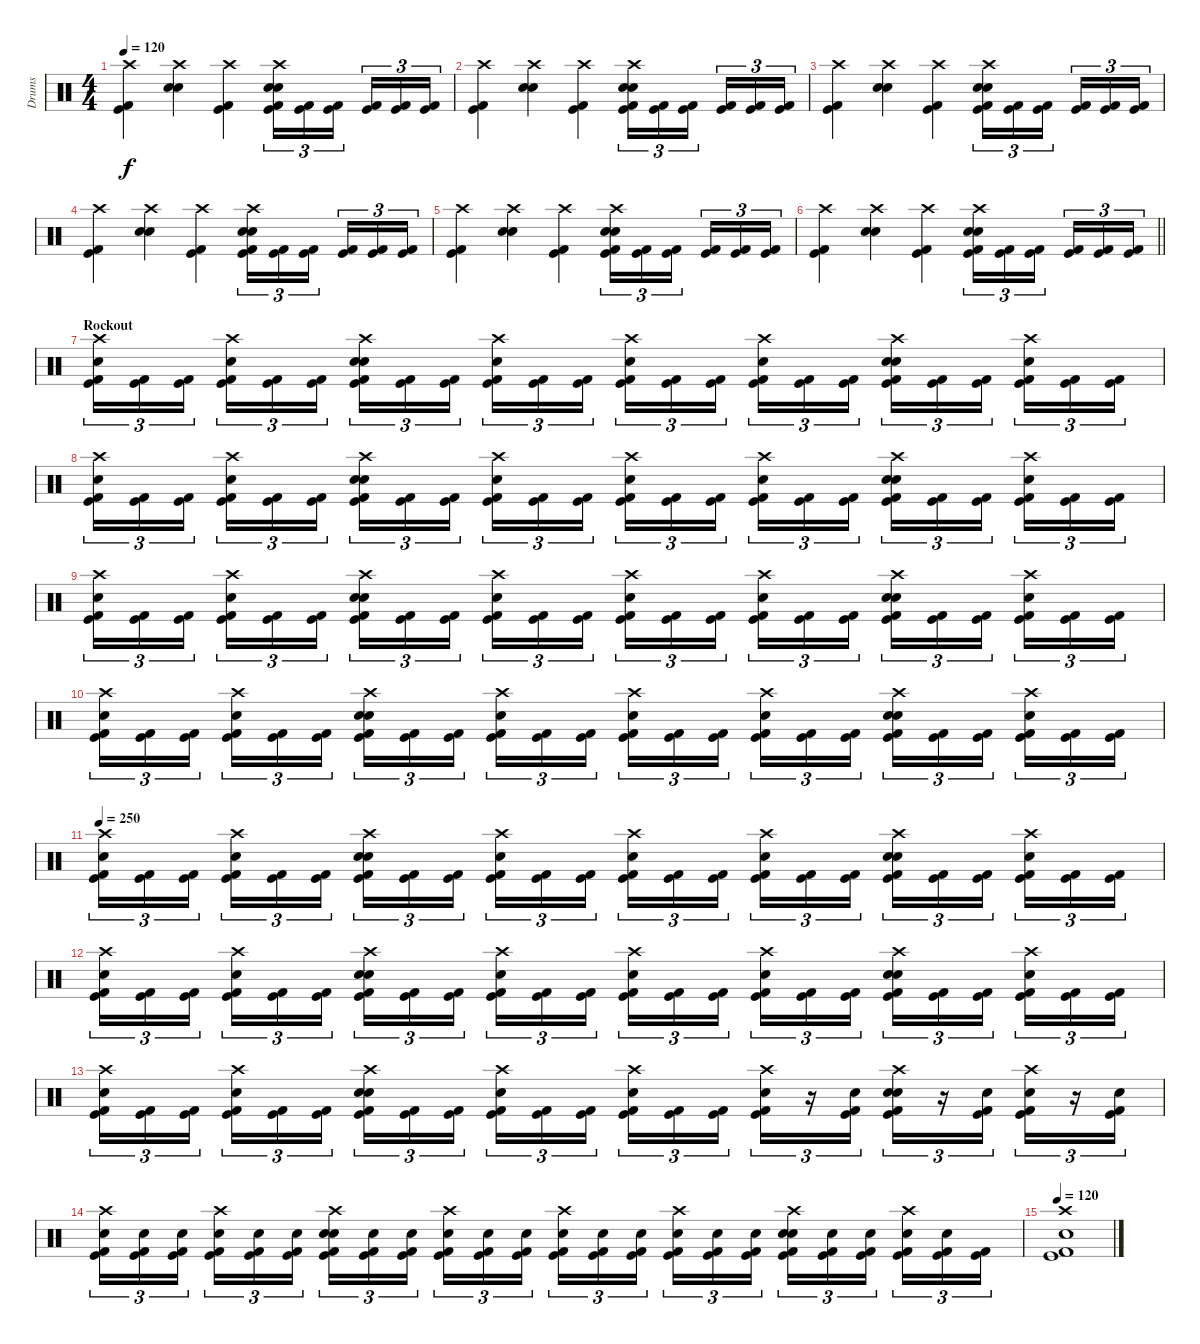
\track ("Drums" "Drums") {instrument percussion}
\staff {score}
\articulation defaults
\ts (4 4)
\tempo 120
\clef neutral
\ks c
("Crash high (hit)" "Kick (hit) 2" "Kick (hit)").4{dy f} ("Crash high (hit)" "Electric Snare (hit)" "Electric Snare (hit)").4 ("Crash high (hit)" "Kick (hit) 2" "Kick (hit)").4 ("Crash high (hit)" "Electric Snare (hit)" "Electric Snare (hit)" "Kick (hit)" "Kick (hit) 2").16{tu (3 2)} ("Kick (hit)" "Kick (hit) 2").16{tu (3 2)} ("Kick (hit)" "Kick (hit) 2").16{tu (3 2) beam splitsecondary} ("Kick (hit)" "Kick (hit) 2").16{tu (3 2)} ("Kick (hit)" "Kick (hit) 2").16{tu (3 2)} ("Kick (hit)" "Kick (hit) 2").16{tu (3 2)} |
("Crash high (hit)" "Kick (hit) 2" "Kick (hit)").4 ("Crash high (hit)" "Electric Snare (hit)" "Electric Snare (hit)").4 ("Crash high (hit)" "Kick (hit) 2" "Kick (hit)").4 ("Crash high (hit)" "Electric Snare (hit)" "Electric Snare (hit)" "Kick (hit)" "Kick (hit) 2").16{tu (3 2)} ("Kick (hit)" "Kick (hit) 2").16{tu (3 2)} ("Kick (hit)" "Kick (hit) 2").16{tu (3 2) beam splitsecondary} ("Kick (hit)" "Kick (hit) 2").16{tu (3 2)} ("Kick (hit)" "Kick (hit) 2").16{tu (3 2)} ("Kick (hit)" "Kick (hit) 2").16{tu (3 2)} |
("Crash high (hit)" "Kick (hit) 2" "Kick (hit)").4 ("Crash high (hit)" "Electric Snare (hit)" "Electric Snare (hit)").4 ("Crash high (hit)" "Kick (hit) 2" "Kick (hit)").4 ("Crash high (hit)" "Electric Snare (hit)" "Electric Snare (hit)" "Kick (hit)" "Kick (hit) 2").16{tu (3 2)} ("Kick (hit)" "Kick (hit) 2").16{tu (3 2)} ("Kick (hit)" "Kick (hit) 2").16{tu (3 2) beam splitsecondary} ("Kick (hit)" "Kick (hit) 2").16{tu (3 2)} ("Kick (hit)" "Kick (hit) 2").16{tu (3 2)} ("Kick (hit)" "Kick (hit) 2").16{tu (3 2)} |
("Crash high (hit)" "Kick (hit) 2" "Kick (hit)").4 ("Crash high (hit)" "Electric Snare (hit)" "Electric Snare (hit)").4 ("Crash high (hit)" "Kick (hit) 2" "Kick (hit)").4 ("Crash high (hit)" "Electric Snare (hit)" "Electric Snare (hit)" "Kick (hit)" "Kick (hit) 2").16{tu (3 2)} ("Kick (hit)" "Kick (hit) 2").16{tu (3 2)} ("Kick (hit)" "Kick (hit) 2").16{tu (3 2) beam splitsecondary} ("Kick (hit)" "Kick (hit) 2").16{tu (3 2)} ("Kick (hit)" "Kick (hit) 2").16{tu (3 2)} ("Kick (hit)" "Kick (hit) 2").16{tu (3 2)} |
("Crash high (hit)" "Kick (hit) 2" "Kick (hit)").4 ("Crash high (hit)" "Electric Snare (hit)" "Electric Snare (hit)").4 ("Crash high (hit)" "Kick (hit) 2" "Kick (hit)").4 ("Crash high (hit)" "Electric Snare (hit)" "Electric Snare (hit)" "Kick (hit)" "Kick (hit) 2").16{tu (3 2)} ("Kick (hit)" "Kick (hit) 2").16{tu (3 2)} ("Kick (hit)" "Kick (hit) 2").16{tu (3 2) beam splitsecondary} ("Kick (hit)" "Kick (hit) 2").16{tu (3 2)} ("Kick (hit)" "Kick (hit) 2").16{tu (3 2)} ("Kick (hit)" "Kick (hit) 2").16{tu (3 2)} |
\barLineRight lightlight
("Crash high (hit)" "Kick (hit) 2" "Kick (hit)").4 ("Crash high (hit)" "Electric Snare (hit)" "Electric Snare (hit)").4 ("Crash high (hit)" "Kick (hit) 2" "Kick (hit)").4 ("Crash high (hit)" "Electric Snare (hit)" "Electric Snare (hit)" "Kick (hit)" "Kick (hit) 2").16{tu (3 2)} ("Kick (hit)" "Kick (hit) 2").16{tu (3 2)} ("Kick (hit)" "Kick (hit) 2").16{tu (3 2) beam splitsecondary} ("Kick (hit)" "Kick (hit) 2").16{tu (3 2)} ("Kick (hit)" "Kick (hit) 2").16{tu (3 2)} ("Kick (hit)" "Kick (hit) 2").16{tu (3 2)} |
\section ("" "Rockout")
("Crash high (hit)" "Electric Snare (hit)" "Kick (hit) 2" "Kick (hit)").16{tu (3 2)} ("Kick (hit) 2" "Kick (hit)").16{tu (3 2)} ("Kick (hit) 2" "Kick (hit)").16{tu (3 2) beam splitsecondary} ("Crash high (hit)" "Electric Snare (hit)" "Kick (hit) 2" "Kick (hit)").16{tu (3 2)} ("Kick (hit) 2" "Kick (hit)").16{tu (3 2)} ("Kick (hit) 2" "Kick (hit)").16{tu (3 2)} ("Crash high (hit)" "Electric Snare (hit)" "Electric Snare (hit)" "Kick (hit) 2" "Kick (hit)").16{tu (3 2)} ("Kick (hit) 2" "Kick (hit)").16{tu (3 2)} ("Kick (hit) 2" "Kick (hit)").16{tu (3 2) beam splitsecondary} ("Crash high (hit)" "Electric Snare (hit)" "Kick (hit) 2" "Kick (hit)").16{tu (3 2)} ("Kick (hit) 2" "Kick (hit)").16{tu (3 2)} ("Kick (hit) 2" "Kick (hit)").16{tu (3 2)} ("Crash high (hit)" "Electric Snare (hit)" "Kick (hit) 2" "Kick (hit)").16{tu (3 2)} ("Kick (hit) 2" "Kick (hit)").16{tu (3 2)} ("Kick (hit) 2" "Kick (hit)").16{tu (3 2) beam splitsecondary} ("Crash high (hit)" "Electric Snare (hit)" "Kick (hit) 2" "Kick (hit)").16{tu (3 2)} ("Kick (hit) 2" "Kick (hit)").16{tu (3 2)} ("Kick (hit) 2" "Kick (hit)").16{tu (3 2)} ("Crash high (hit)" "Electric Snare (hit)" "Electric Snare (hit)" "Kick (hit) 2" "Kick (hit)").16{tu (3 2)} ("Kick (hit) 2" "Kick (hit)").16{tu (3 2)} ("Kick (hit) 2" "Kick (hit)").16{tu (3 2) beam splitsecondary} ("Crash high (hit)" "Electric Snare (hit)" "Kick (hit) 2" "Kick (hit)").16{tu (3 2)} ("Kick (hit) 2" "Kick (hit)").16{tu (3 2)} ("Kick (hit) 2" "Kick (hit)").16{tu (3 2)} |
("Crash high (hit)" "Electric Snare (hit)" "Kick (hit) 2" "Kick (hit)").16{tu (3 2)} ("Kick (hit) 2" "Kick (hit)").16{tu (3 2)} ("Kick (hit) 2" "Kick (hit)").16{tu (3 2) beam splitsecondary} ("Crash high (hit)" "Electric Snare (hit)" "Kick (hit) 2" "Kick (hit)").16{tu (3 2)} ("Kick (hit) 2" "Kick (hit)").16{tu (3 2)} ("Kick (hit) 2" "Kick (hit)").16{tu (3 2)} ("Crash high (hit)" "Electric Snare (hit)" "Electric Snare (hit)" "Kick (hit) 2" "Kick (hit)").16{tu (3 2)} ("Kick (hit) 2" "Kick (hit)").16{tu (3 2)} ("Kick (hit) 2" "Kick (hit)").16{tu (3 2) beam splitsecondary} ("Crash high (hit)" "Electric Snare (hit)" "Kick (hit) 2" "Kick (hit)").16{tu (3 2)} ("Kick (hit) 2" "Kick (hit)").16{tu (3 2)} ("Kick (hit) 2" "Kick (hit)").16{tu (3 2)} ("Crash high (hit)" "Electric Snare (hit)" "Kick (hit) 2" "Kick (hit)").16{tu (3 2)} ("Kick (hit) 2" "Kick (hit)").16{tu (3 2)} ("Kick (hit) 2" "Kick (hit)").16{tu (3 2) beam splitsecondary} ("Crash high (hit)" "Electric Snare (hit)" "Kick (hit) 2" "Kick (hit)").16{tu (3 2)} ("Kick (hit) 2" "Kick (hit)").16{tu (3 2)} ("Kick (hit) 2" "Kick (hit)").16{tu (3 2)} ("Crash high (hit)" "Electric Snare (hit)" "Electric Snare (hit)" "Kick (hit) 2" "Kick (hit)").16{tu (3 2)} ("Kick (hit) 2" "Kick (hit)").16{tu (3 2)} ("Kick (hit) 2" "Kick (hit)").16{tu (3 2) beam splitsecondary} ("Crash high (hit)" "Electric Snare (hit)" "Kick (hit) 2" "Kick (hit)").16{tu (3 2)} ("Kick (hit) 2" "Kick (hit)").16{tu (3 2)} ("Kick (hit) 2" "Kick (hit)").16{tu (3 2)} |
("Crash high (hit)" "Electric Snare (hit)" "Kick (hit) 2" "Kick (hit)").16{tu (3 2)} ("Kick (hit) 2" "Kick (hit)").16{tu (3 2)} ("Kick (hit) 2" "Kick (hit)").16{tu (3 2) beam splitsecondary} ("Crash high (hit)" "Electric Snare (hit)" "Kick (hit) 2" "Kick (hit)").16{tu (3 2)} ("Kick (hit) 2" "Kick (hit)").16{tu (3 2)} ("Kick (hit) 2" "Kick (hit)").16{tu (3 2)} ("Crash high (hit)" "Electric Snare (hit)" "Electric Snare (hit)" "Kick (hit) 2" "Kick (hit)").16{tu (3 2)} ("Kick (hit) 2" "Kick (hit)").16{tu (3 2)} ("Kick (hit) 2" "Kick (hit)").16{tu (3 2) beam splitsecondary} ("Crash high (hit)" "Electric Snare (hit)" "Kick (hit) 2" "Kick (hit)").16{tu (3 2)} ("Kick (hit) 2" "Kick (hit)").16{tu (3 2)} ("Kick (hit) 2" "Kick (hit)").16{tu (3 2)} ("Crash high (hit)" "Electric Snare (hit)" "Kick (hit) 2" "Kick (hit)").16{tu (3 2)} ("Kick (hit) 2" "Kick (hit)").16{tu (3 2)} ("Kick (hit) 2" "Kick (hit)").16{tu (3 2) beam splitsecondary} ("Crash high (hit)" "Electric Snare (hit)" "Kick (hit) 2" "Kick (hit)").16{tu (3 2)} ("Kick (hit) 2" "Kick (hit)").16{tu (3 2)} ("Kick (hit) 2" "Kick (hit)").16{tu (3 2)} ("Crash high (hit)" "Electric Snare (hit)" "Electric Snare (hit)" "Kick (hit) 2" "Kick (hit)").16{tu (3 2)} ("Kick (hit) 2" "Kick (hit)").16{tu (3 2)} ("Kick (hit) 2" "Kick (hit)").16{tu (3 2) beam splitsecondary} ("Crash high (hit)" "Electric Snare (hit)" "Kick (hit) 2" "Kick (hit)").16{tu (3 2)} ("Kick (hit) 2" "Kick (hit)").16{tu (3 2)} ("Kick (hit) 2" "Kick (hit)").16{tu (3 2)} |
("Crash high (hit)" "Electric Snare (hit)" "Kick (hit) 2" "Kick (hit)").16{tu (3 2)} ("Kick (hit) 2" "Kick (hit)").16{tu (3 2)} ("Kick (hit) 2" "Kick (hit)").16{tu (3 2) beam splitsecondary} ("Crash high (hit)" "Electric Snare (hit)" "Kick (hit) 2" "Kick (hit)").16{tu (3 2)} ("Kick (hit) 2" "Kick (hit)").16{tu (3 2)} ("Kick (hit) 2" "Kick (hit)").16{tu (3 2)} ("Crash high (hit)" "Electric Snare (hit)" "Electric Snare (hit)" "Kick (hit) 2" "Kick (hit)").16{tu (3 2)} ("Kick (hit) 2" "Kick (hit)").16{tu (3 2)} ("Kick (hit) 2" "Kick (hit)").16{tu (3 2) beam splitsecondary} ("Crash high (hit)" "Electric Snare (hit)" "Kick (hit) 2" "Kick (hit)").16{tu (3 2)} ("Kick (hit) 2" "Kick (hit)").16{tu (3 2)} ("Kick (hit) 2" "Kick (hit)").16{tu (3 2)} ("Crash high (hit)" "Electric Snare (hit)" "Kick (hit) 2" "Kick (hit)").16{tu (3 2)} ("Kick (hit) 2" "Kick (hit)").16{tu (3 2)} ("Kick (hit) 2" "Kick (hit)").16{tu (3 2) beam splitsecondary} ("Crash high (hit)" "Electric Snare (hit)" "Kick (hit) 2" "Kick (hit)").16{tu (3 2)} ("Kick (hit) 2" "Kick (hit)").16{tu (3 2)} ("Kick (hit) 2" "Kick (hit)").16{tu (3 2)} ("Crash high (hit)" "Electric Snare (hit)" "Electric Snare (hit)" "Kick (hit) 2" "Kick (hit)").16{tu (3 2)} ("Kick (hit) 2" "Kick (hit)").16{tu (3 2)} ("Kick (hit) 2" "Kick (hit)").16{tu (3 2) beam splitsecondary} ("Crash high (hit)" "Electric Snare (hit)" "Kick (hit) 2" "Kick (hit)").16{tu (3 2)} ("Kick (hit) 2" "Kick (hit)").16{tu (3 2)} ("Kick (hit) 2" "Kick (hit)").16{tu (3 2)} |
\tempo 250
("Crash high (hit)" "Electric Snare (hit)" "Kick (hit) 2" "Kick (hit)").16{tu (3 2)} ("Kick (hit) 2" "Kick (hit)").16{tu (3 2)} ("Kick (hit) 2" "Kick (hit)").16{tu (3 2) beam splitsecondary} ("Crash high (hit)" "Electric Snare (hit)" "Kick (hit) 2" "Kick (hit)").16{tu (3 2)} ("Kick (hit) 2" "Kick (hit)").16{tu (3 2)} ("Kick (hit) 2" "Kick (hit)").16{tu (3 2)} ("Crash high (hit)" "Electric Snare (hit)" "Electric Snare (hit)" "Kick (hit) 2" "Kick (hit)").16{tu (3 2)} ("Kick (hit) 2" "Kick (hit)").16{tu (3 2)} ("Kick (hit) 2" "Kick (hit)").16{tu (3 2) beam splitsecondary} ("Crash high (hit)" "Electric Snare (hit)" "Kick (hit) 2" "Kick (hit)").16{tu (3 2)} ("Kick (hit) 2" "Kick (hit)").16{tu (3 2)} ("Kick (hit) 2" "Kick (hit)").16{tu (3 2)} ("Crash high (hit)" "Electric Snare (hit)" "Kick (hit) 2" "Kick (hit)").16{tu (3 2)} ("Kick (hit) 2" "Kick (hit)").16{tu (3 2)} ("Kick (hit) 2" "Kick (hit)").16{tu (3 2) beam splitsecondary} ("Crash high (hit)" "Electric Snare (hit)" "Kick (hit) 2" "Kick (hit)").16{tu (3 2)} ("Kick (hit) 2" "Kick (hit)").16{tu (3 2)} ("Kick (hit) 2" "Kick (hit)").16{tu (3 2)} ("Crash high (hit)" "Electric Snare (hit)" "Electric Snare (hit)" "Kick (hit) 2" "Kick (hit)").16{tu (3 2)} ("Kick (hit) 2" "Kick (hit)").16{tu (3 2)} ("Kick (hit) 2" "Kick (hit)").16{tu (3 2) beam splitsecondary} ("Crash high (hit)" "Electric Snare (hit)" "Kick (hit) 2" "Kick (hit)").16{tu (3 2)} ("Kick (hit) 2" "Kick (hit)").16{tu (3 2)} ("Kick (hit) 2" "Kick (hit)").16{tu (3 2)} |
("Crash high (hit)" "Electric Snare (hit)" "Kick (hit) 2" "Kick (hit)").16{tu (3 2)} ("Kick (hit) 2" "Kick (hit)").16{tu (3 2)} ("Kick (hit) 2" "Kick (hit)").16{tu (3 2) beam splitsecondary} ("Crash high (hit)" "Electric Snare (hit)" "Kick (hit) 2" "Kick (hit)").16{tu (3 2)} ("Kick (hit) 2" "Kick (hit)").16{tu (3 2)} ("Kick (hit) 2" "Kick (hit)").16{tu (3 2)} ("Crash high (hit)" "Electric Snare (hit)" "Electric Snare (hit)" "Kick (hit) 2" "Kick (hit)").16{tu (3 2)} ("Kick (hit) 2" "Kick (hit)").16{tu (3 2)} ("Kick (hit) 2" "Kick (hit)").16{tu (3 2) beam splitsecondary} ("Crash high (hit)" "Electric Snare (hit)" "Kick (hit) 2" "Kick (hit)").16{tu (3 2)} ("Kick (hit) 2" "Kick (hit)").16{tu (3 2)} ("Kick (hit) 2" "Kick (hit)").16{tu (3 2)} ("Crash high (hit)" "Electric Snare (hit)" "Kick (hit) 2" "Kick (hit)").16{tu (3 2)} ("Kick (hit) 2" "Kick (hit)").16{tu (3 2)} ("Kick (hit) 2" "Kick (hit)").16{tu (3 2) beam splitsecondary} ("Crash high (hit)" "Electric Snare (hit)" "Kick (hit) 2" "Kick (hit)").16{tu (3 2)} ("Kick (hit) 2" "Kick (hit)").16{tu (3 2)} ("Kick (hit) 2" "Kick (hit)").16{tu (3 2)} ("Crash high (hit)" "Electric Snare (hit)" "Electric Snare (hit)" "Kick (hit) 2" "Kick (hit)").16{tu (3 2)} ("Kick (hit) 2" "Kick (hit)").16{tu (3 2)} ("Kick (hit) 2" "Kick (hit)").16{tu (3 2) beam splitsecondary} ("Crash high (hit)" "Electric Snare (hit)" "Kick (hit) 2" "Kick (hit)").16{tu (3 2)} ("Kick (hit) 2" "Kick (hit)").16{tu (3 2)} ("Kick (hit) 2" "Kick (hit)").16{tu (3 2)} |
("Crash high (hit)" "Electric Snare (hit)" "Kick (hit) 2" "Kick (hit)").16{tu (3 2)} ("Kick (hit) 2" "Kick (hit)").16{tu (3 2)} ("Kick (hit) 2" "Kick (hit)").16{tu (3 2) beam splitsecondary} ("Crash high (hit)" "Electric Snare (hit)" "Kick (hit) 2" "Kick (hit)").16{tu (3 2)} ("Kick (hit) 2" "Kick (hit)").16{tu (3 2)} ("Kick (hit) 2" "Kick (hit)").16{tu (3 2)} ("Crash high (hit)" "Electric Snare (hit)" "Electric Snare (hit)" "Kick (hit) 2" "Kick (hit)").16{tu (3 2)} ("Kick (hit) 2" "Kick (hit)").16{tu (3 2)} ("Kick (hit) 2" "Kick (hit)").16{tu (3 2) beam splitsecondary} ("Crash high (hit)" "Electric Snare (hit)" "Kick (hit) 2" "Kick (hit)").16{tu (3 2)} ("Kick (hit) 2" "Kick (hit)").16{tu (3 2)} ("Kick (hit) 2" "Kick (hit)").16{tu (3 2)} ("Crash high (hit)" "Electric Snare (hit)" "Kick (hit) 2" "Kick (hit)").16{tu (3 2)} ("Kick (hit) 2" "Kick (hit)").16{tu (3 2)} ("Kick (hit) 2" "Kick (hit)").16{tu (3 2) beam splitsecondary} ("Crash high (hit)" "Electric Snare (hit)" "Kick (hit) 2" "Kick (hit)").16{tu (3 2)} r.16{tu (3 2)} ("Electric Snare (hit)" "Kick (hit) 2" "Kick (hit)").16{tu (3 2)} ("Crash high (hit)" "Electric Snare (hit)" "Electric Snare (hit)" "Kick (hit) 2" "Kick (hit)").16{tu (3 2)} r.16{tu (3 2)} ("Electric Snare (hit)" "Kick (hit) 2" "Kick (hit)").16{tu (3 2)} ("Crash high (hit)" "Electric Snare (hit)" "Kick (hit) 2" "Kick (hit)").16{tu (3 2)} r.16{tu (3 2)} ("Electric Snare (hit)" "Kick (hit) 2" "Kick (hit)").16{tu (3 2)} |
("Crash high (hit)" "Electric Snare (hit)" "Kick (hit) 2" "Kick (hit)").16{tu (3 2)} ("Electric Snare (hit)" "Kick (hit) 2" "Kick (hit)").16{tu (3 2)} ("Electric Snare (hit)" "Kick (hit) 2" "Kick (hit)").16{tu (3 2) beam splitsecondary} ("Crash high (hit)" "Electric Snare (hit)" "Kick (hit) 2" "Kick (hit)").16{tu (3 2)} ("Electric Snare (hit)" "Kick (hit) 2" "Kick (hit)").16{tu (3 2)} ("Electric Snare (hit)" "Kick (hit) 2" "Kick (hit)").16{tu (3 2)} ("Crash high (hit)" "Electric Snare (hit)" "Electric Snare (hit)" "Kick (hit) 2" "Kick (hit)").16{tu (3 2)} ("Electric Snare (hit)" "Kick (hit) 2" "Kick (hit)").16{tu (3 2)} ("Electric Snare (hit)" "Kick (hit) 2" "Kick (hit)").16{tu (3 2) beam splitsecondary} ("Crash high (hit)" "Electric Snare (hit)" "Kick (hit) 2" "Kick (hit)").16{tu (3 2)} ("Electric Snare (hit)" "Kick (hit) 2" "Kick (hit)").16{tu (3 2)} ("Electric Snare (hit)" "Kick (hit) 2" "Kick (hit)").16{tu (3 2)} ("Crash high (hit)" "Snare (hit)" "Kick (hit) 2" "Kick (hit)").16{tu (3 2)} ("Electric Snare (hit)" "Kick (hit) 2" "Kick (hit)").16{tu (3 2)} ("Electric Snare (hit)" "Kick (hit) 2" "Kick (hit)").16{tu (3 2) beam splitsecondary} ("Crash high (hit)" "Electric Snare (hit)" "Kick (hit) 2" "Kick (hit)").16{tu (3 2)} ("Electric Snare (hit)" "Kick (hit) 2" "Kick (hit)").16{tu (3 2)} ("Electric Snare (hit)" "Kick (hit) 2" "Kick (hit)").16{tu (3 2)} ("Crash high (hit)" "Electric Snare (hit)" "Electric Snare (hit)" "Kick (hit) 2" "Kick (hit)").16{tu (3 2)} ("Electric Snare (hit)" "Kick (hit) 2" "Kick (hit)").16{tu (3 2)} ("Electric Snare (hit)" "Kick (hit) 2" "Kick (hit)").16{tu (3 2) beam splitsecondary} ("Crash high (hit)" "Electric Snare (hit)" "Kick (hit) 2" "Kick (hit)").16{tu (3 2)} ("Electric Snare (hit)" "Kick (hit) 2" "Kick (hit)").16{tu (3 2)} ("Kick (hit) 2" "Kick (hit)").16{tu (3 2)} |
\tempo 120
("Electric Snare (hit)" "Crash high (hit)" "Kick (hit)" "Kick (hit) 2").1
